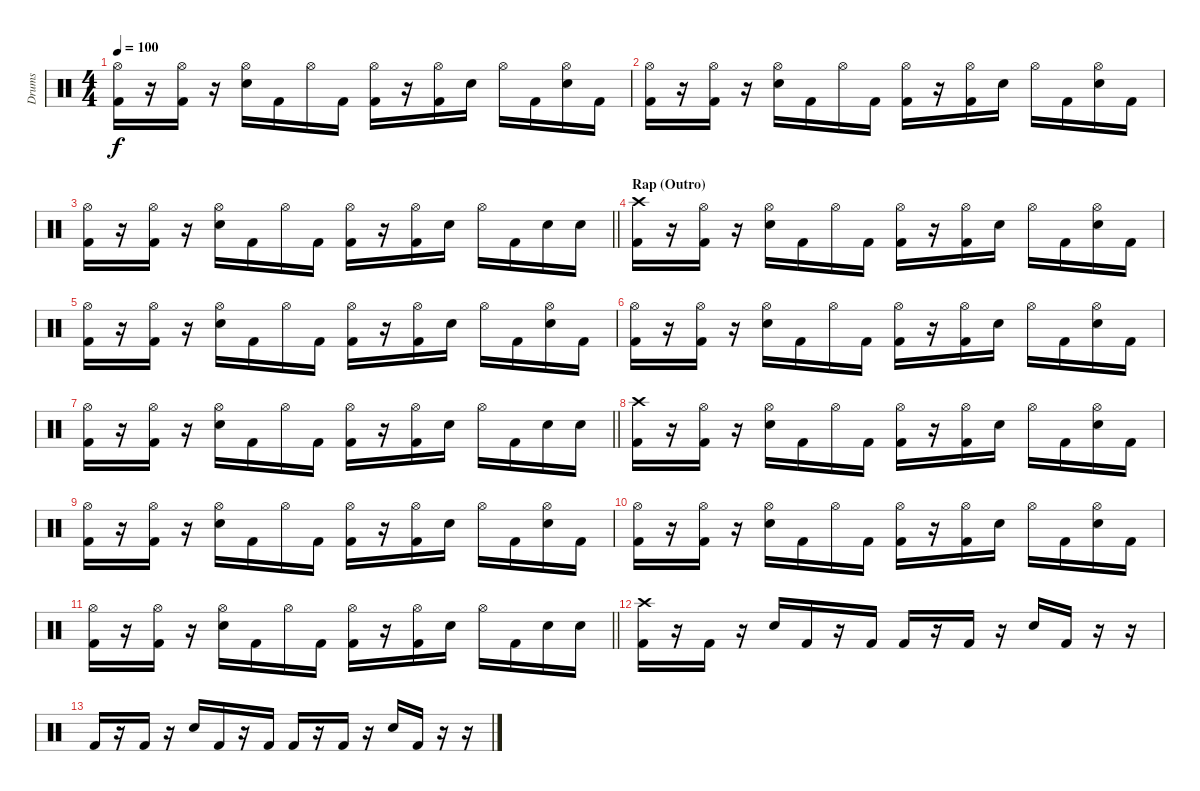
\track ("Drums" "Drums") {instrument percussion}
\staff {score}
\articulation defaults
\ts (4 4)
\tempo 100
\clef neutral
\ks c
("Hi-Hat (open)" "Kick (hit) 2").16{dy f} r.16 ("Hi-Hat (open)" "Kick (hit) 2").16 r.16 ("Hi-Hat (open)" "Snare (hit) 2").16 "Kick (hit) 2".16 "Hi-Hat (open)".16 "Kick (hit) 2".16 ("Hi-Hat (open)" "Kick (hit) 2").16 r.16 ("Hi-Hat (open)" "Kick (hit) 2").16 "Snare (hit) 2".16 "Hi-Hat (open)".16 "Kick (hit) 2".16 ("Hi-Hat (open)" "Snare (hit) 2").16 "Kick (hit) 2".16 |
("Hi-Hat (open)" "Kick (hit) 2").16 r.16 ("Hi-Hat (open)" "Kick (hit) 2").16 r.16 ("Hi-Hat (open)" "Snare (hit) 2").16 "Kick (hit) 2".16 "Hi-Hat (open)".16 "Kick (hit) 2".16 ("Hi-Hat (open)" "Kick (hit) 2").16 r.16 ("Hi-Hat (open)" "Kick (hit) 2").16 "Snare (hit) 2".16 "Hi-Hat (open)".16 "Kick (hit) 2".16 ("Hi-Hat (open)" "Snare (hit) 2").16 "Kick (hit) 2".16 |
\barLineRight lightlight
("Hi-Hat (open)" "Kick (hit) 2").16 r.16 ("Hi-Hat (open)" "Kick (hit) 2").16 r.16 ("Hi-Hat (open)" "Snare (hit) 2").16 "Kick (hit) 2".16 "Hi-Hat (open)".16 "Kick (hit) 2".16 ("Hi-Hat (open)" "Kick (hit) 2").16 r.16 ("Hi-Hat (open)" "Kick (hit) 2").16 "Snare (hit) 2".16 "Hi-Hat (open)".16 "Kick (hit) 2".16 "Snare (hit) 2".16 "Snare (hit) 2".16 |
\section ("" "Rap (Outro)")
("Crash high (hit)" "Kick (hit) 2").16 r.16 ("Hi-Hat (open)" "Kick (hit) 2").16 r.16 ("Hi-Hat (open)" "Snare (hit) 2").16 "Kick (hit) 2".16 "Hi-Hat (open)".16 "Kick (hit) 2".16 ("Hi-Hat (open)" "Kick (hit) 2").16 r.16 ("Hi-Hat (open)" "Kick (hit) 2").16 "Snare (hit) 2".16 "Hi-Hat (open)".16 "Kick (hit) 2".16 ("Hi-Hat (open)" "Snare (hit) 2").16 "Kick (hit) 2".16 |
("Hi-Hat (open)" "Kick (hit) 2").16 r.16 ("Hi-Hat (open)" "Kick (hit) 2").16 r.16 ("Hi-Hat (open)" "Snare (hit) 2").16 "Kick (hit) 2".16 "Hi-Hat (open)".16 "Kick (hit) 2".16 ("Hi-Hat (open)" "Kick (hit) 2").16 r.16 ("Hi-Hat (open)" "Kick (hit) 2").16 "Snare (hit) 2".16 "Hi-Hat (open)".16 "Kick (hit) 2".16 ("Hi-Hat (open)" "Snare (hit) 2").16 "Kick (hit) 2".16 |
("Hi-Hat (open)" "Kick (hit) 2").16 r.16 ("Hi-Hat (open)" "Kick (hit) 2").16 r.16 ("Hi-Hat (open)" "Snare (hit) 2").16 "Kick (hit) 2".16 "Hi-Hat (open)".16 "Kick (hit) 2".16 ("Hi-Hat (open)" "Kick (hit) 2").16 r.16 ("Hi-Hat (open)" "Kick (hit) 2").16 "Snare (hit) 2".16 "Hi-Hat (open)".16 "Kick (hit) 2".16 ("Hi-Hat (open)" "Snare (hit) 2").16 "Kick (hit) 2".16 |
\barLineRight lightlight
("Hi-Hat (open)" "Kick (hit) 2").16 r.16 ("Hi-Hat (open)" "Kick (hit) 2").16 r.16 ("Hi-Hat (open)" "Snare (hit) 2").16 "Kick (hit) 2".16 "Hi-Hat (open)".16 "Kick (hit) 2".16 ("Hi-Hat (open)" "Kick (hit) 2").16 r.16 ("Hi-Hat (open)" "Kick (hit) 2").16 "Snare (hit) 2".16 "Hi-Hat (open)".16 "Kick (hit) 2".16 "Snare (hit) 2".16 "Snare (hit) 2".16 |
("Crash high (hit)" "Kick (hit) 2").16 r.16 ("Hi-Hat (open)" "Kick (hit) 2").16 r.16 ("Hi-Hat (open)" "Snare (hit) 2").16 "Kick (hit) 2".16 "Hi-Hat (open)".16 "Kick (hit) 2".16 ("Hi-Hat (open)" "Kick (hit) 2").16 r.16 ("Hi-Hat (open)" "Kick (hit) 2").16 "Snare (hit) 2".16 "Hi-Hat (open)".16 "Kick (hit) 2".16 ("Hi-Hat (open)" "Snare (hit) 2").16 "Kick (hit) 2".16 |
("Hi-Hat (open)" "Kick (hit) 2").16 r.16 ("Hi-Hat (open)" "Kick (hit) 2").16 r.16 ("Hi-Hat (open)" "Snare (hit) 2").16 "Kick (hit) 2".16 "Hi-Hat (open)".16 "Kick (hit) 2".16 ("Hi-Hat (open)" "Kick (hit) 2").16 r.16 ("Hi-Hat (open)" "Kick (hit) 2").16 "Snare (hit) 2".16 "Hi-Hat (open)".16 "Kick (hit) 2".16 ("Hi-Hat (open)" "Snare (hit) 2").16 "Kick (hit) 2".16 |
("Hi-Hat (open)" "Kick (hit) 2").16 r.16 ("Hi-Hat (open)" "Kick (hit) 2").16 r.16 ("Hi-Hat (open)" "Snare (hit) 2").16 "Kick (hit) 2".16 "Hi-Hat (open)".16 "Kick (hit) 2".16 ("Hi-Hat (open)" "Kick (hit) 2").16 r.16 ("Hi-Hat (open)" "Kick (hit) 2").16 "Snare (hit) 2".16 "Hi-Hat (open)".16 "Kick (hit) 2".16 ("Hi-Hat (open)" "Snare (hit) 2").16 "Kick (hit) 2".16 |
\barLineRight lightlight
("Hi-Hat (open)" "Kick (hit) 2").16 r.16 ("Hi-Hat (open)" "Kick (hit) 2").16 r.16 ("Hi-Hat (open)" "Snare (hit) 2").16 "Kick (hit) 2".16 "Hi-Hat (open)".16 "Kick (hit) 2".16 ("Hi-Hat (open)" "Kick (hit) 2").16 r.16 ("Hi-Hat (open)" "Kick (hit) 2").16 "Snare (hit) 2".16 "Hi-Hat (open)".16 "Kick (hit) 2".16 "Snare (hit) 2".16 "Snare (hit) 2".16 |
("Crash high (hit)" "Kick (hit) 2").16 r.16 "Kick (hit) 2".16 r.16 "Snare (hit) 2".16 "Kick (hit) 2".16 r.16 "Kick (hit) 2".16 "Kick (hit) 2".16 r.16 "Kick (hit) 2".16 r.16 "Snare (hit) 2".16 "Kick (hit) 2".16 r.16 r.16 |
"Kick (hit) 2".16{volume 0} r.16 "Kick (hit) 2".16 r.16 "Snare (hit) 2".16 "Kick (hit) 2".16 r.16 "Kick (hit) 2".16 "Kick (hit) 2".16 r.16 "Kick (hit) 2".16 r.16 "Snare (hit) 2".16 "Kick (hit) 2".16 r.16 r.16
